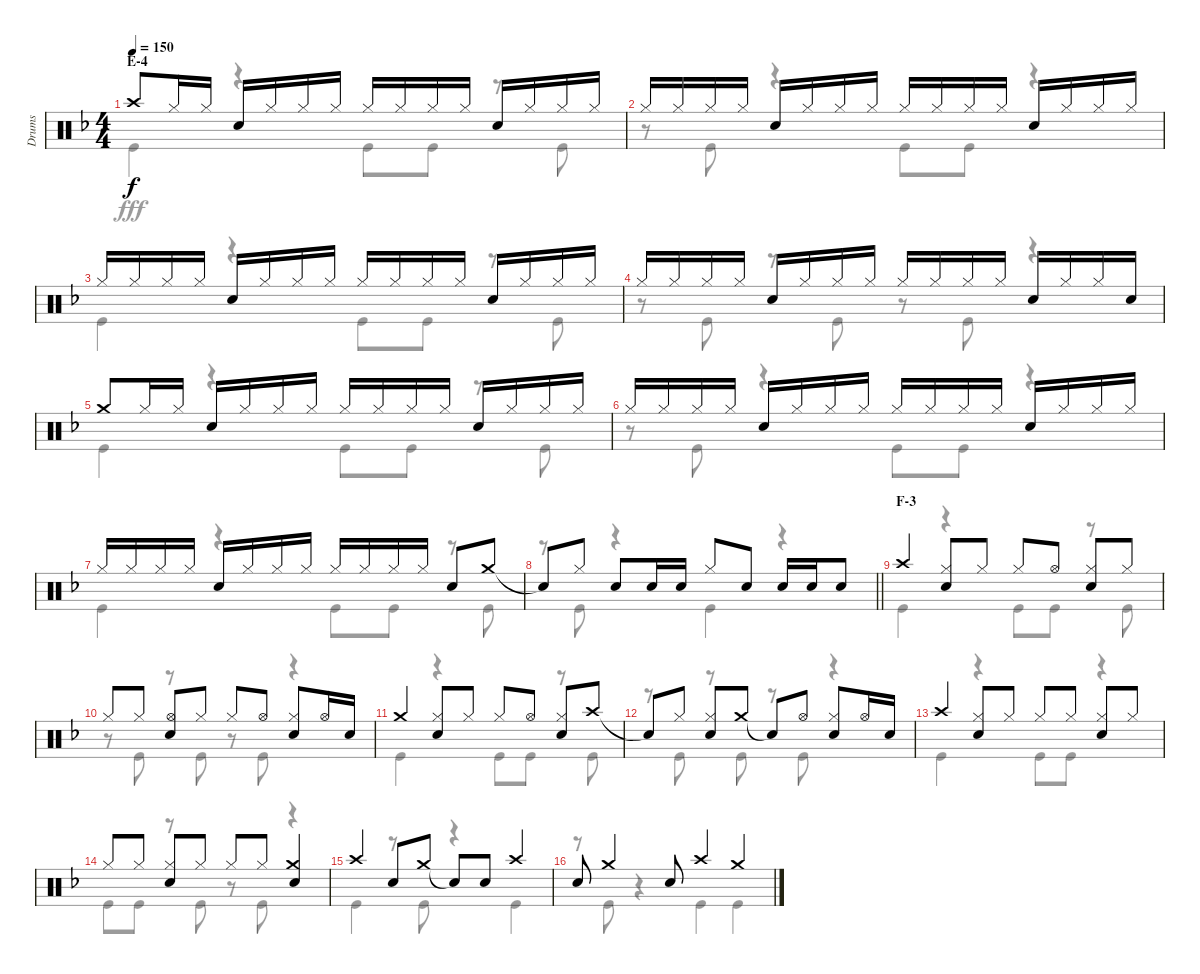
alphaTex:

\track ("Drums" "Drums") {instrument percussion}
\staff {score}
\articulation defaults
\voice
\ts (4 4)
\section ("" "E-4")
\tempo 150
\clef neutral
\ks f "Crash high (hit)".8{dy f} "Hi-Hat (closed)".16 "Hi-Hat (closed)".16 "Snare (hit) 2".16 "Hi-Hat (closed)".16 "Hi-Hat (closed)".16 "Hi-Hat (closed)".16 "Hi-Hat (closed)".16 "Hi-Hat (closed)".16 "Hi-Hat (closed)".16 "Hi-Hat (closed)".16 "Snare (hit) 2".16 "Hi-Hat (closed)".16 "Hi-Hat (closed)".16 "Hi-Hat (closed)".16
|
"Hi-Hat (closed)".16 "Hi-Hat (closed)".16 "Hi-Hat (closed)".16 "Hi-Hat (closed)".16 "Snare (hit) 2".16 "Hi-Hat (closed)".16 "Hi-Hat (closed)".16 "Hi-Hat (closed)".16 "Hi-Hat (closed)".16 "Hi-Hat (closed)".16 "Hi-Hat (closed)".16 "Hi-Hat (closed)".16 "Snare (hit) 2".16 "Hi-Hat (closed)".16 "Hi-Hat (closed)".16 "Hi-Hat (closed)".16 |
"Hi-Hat (closed)".16 "Hi-Hat (closed)".16 "Hi-Hat (closed)".16 "Hi-Hat (closed)".16 "Snare (hit) 2".16 "Hi-Hat (closed)".16 "Hi-Hat (closed)".16 "Hi-Hat (closed)".16 "Hi-Hat (closed)".16 "Hi-Hat (closed)".16 "Hi-Hat (closed)".16 "Hi-Hat (closed)".16 "Snare (hit) 2".16 "Hi-Hat (closed)".16 "Hi-Hat (closed)".16 "Hi-Hat (closed)".16 |
"Hi-Hat (closed)".16 "Hi-Hat (closed)".16 "Hi-Hat (closed)".16 "Hi-Hat (closed)".16 "Snare (hit) 2".16 "Hi-Hat (closed)".16 "Hi-Hat (closed)".16 "Hi-Hat (closed)".16 "Hi-Hat (closed)".16 "Hi-Hat (closed)".16 "Hi-Hat (closed)".16 "Hi-Hat (closed)".16 "Snare (hit) 2".16 "Hi-Hat (closed)".16 "Hi-Hat (closed)".16 "Snare (hit) 2".16 |
"Crash medium (hit)".8 "Hi-Hat (closed)".16 "Hi-Hat (closed)".16 "Snare (hit) 2".16 "Hi-Hat (closed)".16 "Hi-Hat (closed)".16 "Hi-Hat (closed)".16 "Hi-Hat (closed)".16 "Hi-Hat (closed)".16 "Hi-Hat (closed)".16 "Hi-Hat (closed)".16 "Snare (hit) 2".16 "Hi-Hat (closed)".16 "Hi-Hat (closed)".16 "Hi-Hat (closed)".16 |
"Hi-Hat (closed)".16 "Hi-Hat (closed)".16 "Hi-Hat (closed)".16 "Hi-Hat (closed)".16 "Snare (hit) 2".16 "Hi-Hat (closed)".16 "Hi-Hat (closed)".16 "Hi-Hat (closed)".16 "Hi-Hat (closed)".16 "Hi-Hat (closed)".16 "Hi-Hat (closed)".16 "Hi-Hat (closed)".16 "Snare (hit) 2".16 "Hi-Hat (closed)".16 "Hi-Hat (closed)".16 "Hi-Hat (closed)".16 |
"Hi-Hat (closed)".16 "Hi-Hat (closed)".16 "Hi-Hat (closed)".16 "Hi-Hat (closed)".16 "Snare (hit) 2".16 "Hi-Hat (closed)".16 "Hi-Hat (closed)".16 "Hi-Hat (closed)".16 "Hi-Hat (closed)".16 "Hi-Hat (closed)".16 "Hi-Hat (closed)".16 "Hi-Hat (closed)".16 "Snare (hit) 2".8 "Crash medium (hit)".8 |
\barLineRight lightlight "Snare (hit)"{t}.8 "Hi-Hat (closed)".8 "Snare (hit) 2".8 "Snare (hit) 2".16 "Snare (hit) 2".16 "Hi-Hat (closed)".8 "Snare (hit) 2".8 "Snare (hit) 2".16 "Snare (hit) 2".16 "Snare (hit) 2".8
|
\section ("" "F-3")
"Crash high (hit)".4 ("Hi-Hat (closed)" "Snare (hit) 2").8 "Hi-Hat (closed)".8 "Hi-Hat (closed)".8 "Hi-Hat (open)".8 ("Hi-Hat (closed)" "Snare (hit) 2").8 "Hi-Hat (closed)".8 |
"Hi-Hat (closed)".8 "Hi-Hat (closed)".8 ("Hi-Hat (open)" "Snare (hit) 2").8 "Hi-Hat (closed)".8 "Hi-Hat (closed)".8 "Hi-Hat (open)".8 ("Hi-Hat (closed)" "Snare (hit) 2").8 "Hi-Hat (open)".16 "Snare (hit) 2".16 |
"Crash medium (hit)".4 ("Hi-Hat (closed)" "Snare (hit) 2").8 "Hi-Hat (closed)".8 "Hi-Hat (closed)".8 "Hi-Hat (open)".8 ("Hi-Hat (closed)" "Snare (hit) 2").8 "Crash high (hit)".8 |
"Snare (hit)"{t}.8 "Hi-Hat (closed)".8 ("Hi-Hat (closed)" "Snare (hit) 2").8 "Crash medium (hit)".8 "Snare (hit)"{t}.8 "Hi-Hat (open)".8 ("Hi-Hat (closed)" "Snare (hit) 2").8 "Hi-Hat (open)".16 "Snare (hit) 2".16 |
"Crash high (hit)".4 ("Hi-Hat (closed)" "Snare (hit) 2").8 "Hi-Hat (closed)".8 "Hi-Hat (closed)".8 "Hi-Hat (closed)".8 ("Hi-Hat (closed)" "Snare (hit) 2").8 "Hi-Hat (closed)".8 |
"Hi-Hat (closed)".8 "Hi-Hat (closed)".8 ("Hi-Hat (closed)" "Snare (hit) 2").8 "Hi-Hat (closed)".8 "Hi-Hat (closed)".8 "Hi-Hat (closed)".8 ("Crash medium (hit)" "Snare (hit) 2").4 |
"Crash high (hit)".4 "Snare (hit) 2".8 "Crash medium (hit)".8 "Snare (hit)"{t}.8 "Snare (hit) 2".8 "Crash high (hit)".4 |
"Snare (hit) 2".8 "Crash medium (hit)".4 "Snare (hit) 2".8 "Crash high (hit)".4 "Crash medium (hit)".4
\voice
\clef neutral
\ottava regular
\simile none
\ks f "Kick (hit)".4{dy fff}
r.4 "Kick (hit)".8 "Kick (hit)".8 r.8 "Kick (hit)".8 |
r.8 "Kick (hit)".8 r.4 "Kick (hit)".8 "Kick (hit)".8 r.4 |
"Kick (hit)".4 r.4 "Kick (hit)".8 "Kick (hit)".8 r.8 "Kick (hit)".8 |
r.8 "Kick (hit)".8 r.8 "Kick (hit)".8 r.8 "Kick (hit)".8 r.4 |
"Kick (hit)".4 r.4 "Kick (hit)".8 "Kick (hit)".8 r.8 "Kick (hit)".8 |
r.8 "Kick (hit)".8 r.4 "Kick (hit)".8 "Kick (hit)".8 r.4 |
"Kick (hit)".4 r.4 "Kick (hit)".8 "Kick (hit)".8 r.8 "Kick (hit)".8 |
\barLineRight lightlight
r.8 "Kick (hit)".8 r.4 "Kick (hit)".4 r.4 |
"Kick (hit)".4 r.4 "Kick (hit)".8 "Kick (hit)".8 r.8 "Kick (hit)".8 |
r.8 "Kick (hit)".8 r.8 "Kick (hit)".8 r.8 "Kick (hit)".8 r.4 |
"Kick (hit)".4 r.4 "Kick (hit)".8 "Kick (hit)".8 r.8 "Kick (hit)".8 |
r.8 "Kick (hit)".8 r.8 "Kick (hit)".8 r.8 "Kick (hit)".8 r.4 |
"Kick (hit)".4 r.4 "Kick (hit)".8 "Kick (hit)".8 r.4 |
"Kick (hit)".8 "Kick (hit)".8 r.8 "Kick (hit)".8 r.8 "Kick (hit)".8 r.4 |
"Kick (hit)".4 r.8 "Kick (hit)".8 r.4 "Kick (hit)".4 |
r.8 "Kick (hit)".8 r.4 "Kick (hit)".4 "Kick (hit)".4
